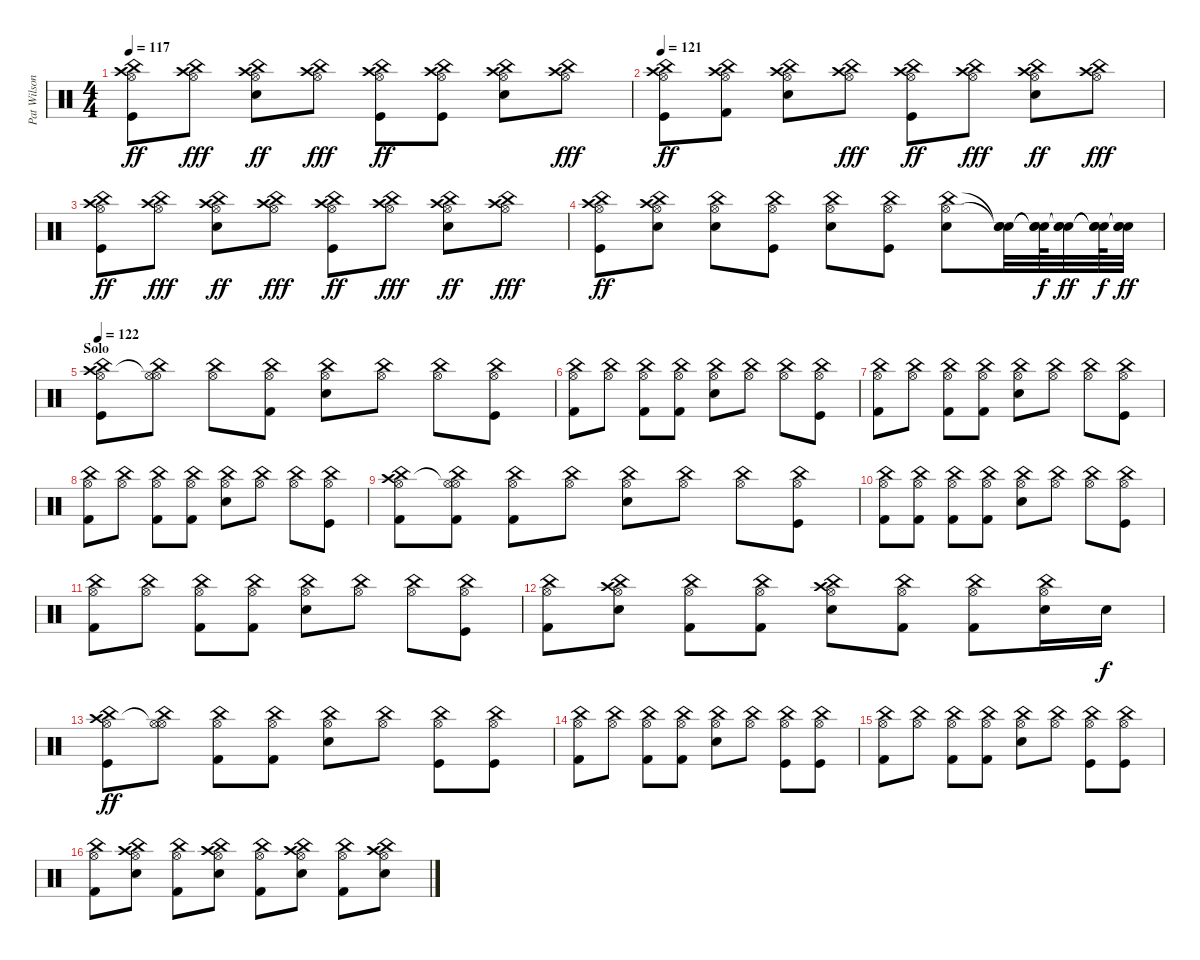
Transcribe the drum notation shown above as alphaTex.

\track ("Pat Wilson" "Pat Wilson") {instrument percussion}
\staff {score}
\articulation defaults
\ts (4 4)
\tempo 117
\clef neutral
\ks c
("Crash high (hit)" "Hi-Hat (open)" "China (hit)" "Kick (hit)").8{dy ff} ("Crash high (hit)" "Hi-Hat (open)" "China (hit)").8{dy fff} ("Crash high (hit)" "Hi-Hat (open)" "China (hit)" "Electric Snare (hit)").8{dy ff} ("Crash high (hit)" "Hi-Hat (open)" "China (hit)").8{dy fff} ("Crash high (hit)" "Hi-Hat (open)" "China (hit)" "Kick (hit)").8{dy ff} ("Crash high (hit)" "Hi-Hat (open)" "China (hit)" "Kick (hit)").8 ("Crash high (hit)" "Hi-Hat (open)" "China (hit)" "Electric Snare (hit)").8 ("Crash high (hit)" "Hi-Hat (open)" "China (hit)").8{dy fff} |
\tempo 121
("Crash high (hit)" "Hi-Hat (open)" "China (hit)" "Kick (hit)").8{dy ff} ("Crash high (hit)" "Hi-Hat (open)" "China (hit)" "Kick (hit) 2").8 ("Crash high (hit)" "Hi-Hat (open)" "China (hit)" "Electric Snare (hit)").8 ("Crash high (hit)" "Hi-Hat (open)" "China (hit)").8{dy fff} ("Crash high (hit)" "Hi-Hat (open)" "China (hit)" "Kick (hit)").8{dy ff} ("Crash high (hit)" "Hi-Hat (open)" "China (hit)").8{dy fff} ("Crash high (hit)" "Hi-Hat (open)" "China (hit)" "Electric Snare (hit)").8{dy ff} ("Crash high (hit)" "Hi-Hat (open)" "China (hit)").8{dy fff} |
("Crash high (hit)" "Hi-Hat (open)" "China (hit)" "Kick (hit)").8{dy ff} ("Crash high (hit)" "Hi-Hat (open)" "China (hit)").8{dy fff} ("Crash high (hit)" "Hi-Hat (open)" "China (hit)" "Electric Snare (hit)").8{dy ff} ("Crash high (hit)" "Hi-Hat (open)" "China (hit)").8{dy fff} ("Crash high (hit)" "Hi-Hat (open)" "China (hit)" "Kick (hit)").8{dy ff} ("Crash high (hit)" "Hi-Hat (open)" "China (hit)").8{dy fff} ("Crash high (hit)" "Hi-Hat (open)" "China (hit)" "Electric Snare (hit)").8{dy ff} ("Crash high (hit)" "Hi-Hat (open)" "China (hit)").8{dy fff} |
("Crash high (hit)" "Hi-Hat (open)" "China (hit)" "Kick (hit)").8{dy ff} ("Crash high (hit)" "Hi-Hat (open)" "China (hit)" "Electric Snare (hit)").8 ("Hi-Hat (open)" "China (hit)" "Electric Snare (hit)").8 ("Hi-Hat (open)" "China (hit)" "Kick (hit)").8 ("Hi-Hat (open)" "China (hit)" "Electric Snare (hit)").8 ("Hi-Hat (open)" "China (hit)" "Kick (hit)").8 ("Hi-Hat (open)" "China (hit)" "Electric Snare (hit)").8 ("Snare (hit)"{t} "Snare (hit)"{t} "Electric Snare (hit)").32 ("Snare (hit)"{t} "Snare (hit)"{t} "Snare (hit)"{t}).64{dy f} ("Snare (hit)"{t} "Snare (hit)"{t} "Electric Snare (hit)").32{dy ff} ("Snare (hit)"{t} "Snare (hit)"{t} "Snare (hit)"{t}).64{dy f} ("Snare (hit)"{t} "Snare (hit)"{t} "Electric Snare (hit)").32{dy ff} |
\section ("" "Solo")
\tempo 122
("Crash high (hit)" "Hi-Hat (open)" "China (hit)" "Kick (hit)").8 ("Hi-Hat (open)"{t} "Hi-Hat (open)" "China (hit)").8 ("Hi-Hat (open)" "China (hit)").8 ("Hi-Hat (open)" "China (hit)" "Kick (hit) 2").8 ("Hi-Hat (open)" "China (hit)" "Snare (hit) 2").8 ("Hi-Hat (open)" "China (hit)").8 ("Hi-Hat (open)" "China (hit)").8 ("Hi-Hat (open)" "China (hit)" "Kick (hit)").8 |
("Hi-Hat (open)" "China (hit)" "Kick (hit) 2").8 ("Hi-Hat (open)" "China (hit)").8 ("Hi-Hat (open)" "China (hit)" "Kick (hit) 2").8 ("Hi-Hat (open)" "China (hit)" "Kick (hit) 2").8 ("Hi-Hat (open)" "China (hit)" "Snare (hit) 2").8 ("Hi-Hat (open)" "China (hit)").8 ("Hi-Hat (open)" "China (hit)").8 ("Hi-Hat (open)" "China (hit)" "Kick (hit)").8 |
("Hi-Hat (open)" "China (hit)" "Kick (hit) 2").8 ("Hi-Hat (open)" "China (hit)").8 ("Hi-Hat (open)" "China (hit)" "Kick (hit) 2").8 ("Hi-Hat (open)" "China (hit)" "Kick (hit) 2").8 ("Hi-Hat (open)" "China (hit)" "Snare (hit) 2").8 ("Hi-Hat (open)" "China (hit)").8 ("Hi-Hat (open)" "China (hit)").8 ("Hi-Hat (open)" "China (hit)" "Kick (hit)").8 |
("Hi-Hat (open)" "China (hit)" "Kick (hit) 2").8 ("Hi-Hat (open)" "China (hit)").8 ("Hi-Hat (open)" "China (hit)" "Kick (hit) 2").8 ("Hi-Hat (open)" "China (hit)" "Kick (hit) 2").8 ("Hi-Hat (open)" "China (hit)" "Snare (hit) 2").8 ("Hi-Hat (open)" "China (hit)").8 ("Hi-Hat (open)" "China (hit)").8 ("Hi-Hat (open)" "China (hit)" "Kick (hit)").8 |
("Crash high (hit)" "Hi-Hat (open)" "China (hit)" "Kick (hit) 2").8 ("Hi-Hat (open)"{t} "Hi-Hat (open)" "China (hit)" "Kick (hit) 2").8 ("Hi-Hat (open)" "China (hit)" "Kick (hit) 2").8 ("Hi-Hat (open)" "China (hit)").8 ("Hi-Hat (open)" "China (hit)" "Snare (hit) 2").8 ("Hi-Hat (open)" "China (hit)").8 ("Hi-Hat (open)" "China (hit)").8 ("Hi-Hat (open)" "China (hit)" "Kick (hit)").8 |
("Hi-Hat (open)" "China (hit)" "Kick (hit) 2").8 ("Hi-Hat (open)" "China (hit)" "Kick (hit) 2").8 ("Hi-Hat (open)" "China (hit)" "Kick (hit) 2").8 ("Hi-Hat (open)" "China (hit)" "Kick (hit) 2").8 ("Hi-Hat (open)" "China (hit)" "Snare (hit) 2").8 ("Hi-Hat (open)" "China (hit)").8 ("Hi-Hat (open)" "China (hit)").8 ("Hi-Hat (open)" "China (hit)" "Kick (hit)").8 |
("Hi-Hat (open)" "China (hit)" "Kick (hit) 2").8 ("Hi-Hat (open)" "China (hit)").8 ("Hi-Hat (open)" "China (hit)" "Kick (hit) 2").8 ("Hi-Hat (open)" "China (hit)" "Kick (hit) 2").8 ("Hi-Hat (open)" "China (hit)" "Snare (hit) 2").8 ("Hi-Hat (open)" "China (hit)").8 ("Hi-Hat (open)" "China (hit)").8 ("Hi-Hat (open)" "China (hit)" "Kick (hit)").8 |
("Hi-Hat (open)" "China (hit)" "Kick (hit) 2").8 ("Crash high (hit)" "Hi-Hat (open)" "China (hit)" "Snare (hit) 2").8 ("Hi-Hat (open)" "China (hit)" "Kick (hit) 2").8 ("Hi-Hat (open)" "China (hit)" "Kick (hit) 2").8 ("Crash high (hit)" "Hi-Hat (open)" "China (hit)" "Snare (hit) 2").8 ("Hi-Hat (open)" "China (hit)" "Kick (hit) 2").8 ("Hi-Hat (open)" "China (hit)" "Kick (hit) 2").8 ("Hi-Hat (open)" "China (hit)" "Snare (hit) 2").16 "Snare (hit) 2".16{dy f} |
("Crash high (hit)" "Hi-Hat (open)" "China (hit)" "Kick (hit)").8{dy ff} ("Hi-Hat (open)"{t} "Hi-Hat (open)" "China (hit)").8 ("Hi-Hat (open)" "China (hit)" "Kick (hit) 2").8 ("Hi-Hat (open)" "China (hit)" "Kick (hit) 2").8 ("Hi-Hat (open)" "China (hit)" "Snare (hit) 2").8 ("Hi-Hat (open)" "China (hit)").8 ("Hi-Hat (open)" "China (hit)" "Kick (hit)").8 ("Hi-Hat (open)" "China (hit)" "Kick (hit)").8 |
("Hi-Hat (open)" "China (hit)" "Kick (hit) 2").8 ("Hi-Hat (open)" "China (hit)").8 ("Hi-Hat (open)" "China (hit)" "Kick (hit) 2").8 ("Hi-Hat (open)" "China (hit)" "Kick (hit) 2").8 ("Hi-Hat (open)" "China (hit)" "Snare (hit) 2").8 ("Hi-Hat (open)" "China (hit)").8 ("Hi-Hat (open)" "China (hit)" "Kick (hit)").8 ("Hi-Hat (open)" "China (hit)" "Kick (hit)").8 |
("Hi-Hat (open)" "China (hit)" "Kick (hit) 2").8 ("Hi-Hat (open)" "China (hit)").8 ("Hi-Hat (open)" "China (hit)" "Kick (hit) 2").8 ("Hi-Hat (open)" "China (hit)" "Kick (hit) 2").8 ("Hi-Hat (open)" "China (hit)" "Snare (hit) 2").8 ("Hi-Hat (open)" "China (hit)").8 ("Hi-Hat (open)" "China (hit)" "Kick (hit)").8 ("Hi-Hat (open)" "China (hit)" "Kick (hit)").8 |
("Hi-Hat (open)" "China (hit)" "Kick (hit) 2").8 ("Crash high (hit)" "Hi-Hat (open)" "China (hit)" "Snare (hit) 2").8 ("Hi-Hat (open)" "China (hit)" "Kick (hit) 2").8 ("Crash high (hit)" "Hi-Hat (open)" "China (hit)" "Snare (hit) 2").8 ("Hi-Hat (open)" "China (hit)" "Kick (hit) 2").8 ("Crash high (hit)" "Hi-Hat (open)" "China (hit)" "Snare (hit) 2").8 ("Hi-Hat (open)" "China (hit)" "Kick (hit) 2").8 ("Crash high (hit)" "Hi-Hat (open)" "China (hit)" "Snare (hit) 2").8
